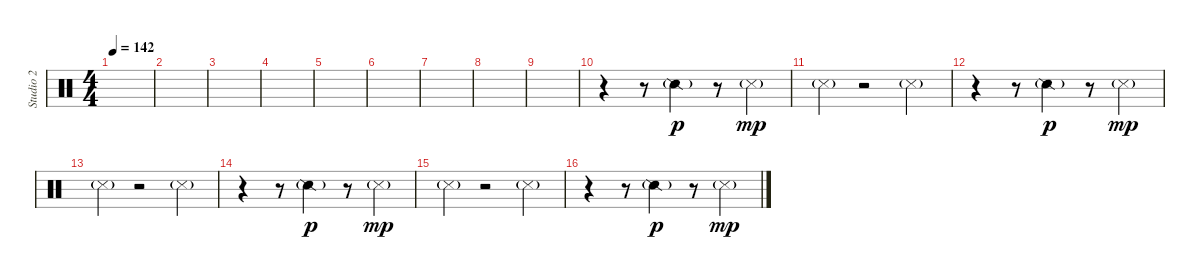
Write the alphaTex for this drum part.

\track ("Studio 2" "Studio 2") {instrument percussion}
\staff {score}
\articulation defaults
\ts (4 4)
\tempo 142
\clef neutral
\ks c
|
|
|
|
|
|
|
|
|
r.4 r.8 "Snare (side stick) 2"{g}.4{dy p} r.8 "Snare (side stick) 3"{g}.4{dy mp} |
"Metronome (hit)"{g}.4 r.2 "Snare (side stick) 3"{g}.4 |
r.4 r.8 "Snare (side stick) 2"{g}.4{dy p} r.8 "Snare (side stick) 3"{g}.4{dy mp} |
"Metronome (hit)"{g}.4 r.2 "Snare (side stick) 3"{g}.4 |
r.4 r.8 "Snare (side stick) 2"{g}.4{dy p} r.8 "Snare (side stick) 3"{g}.4{dy mp} |
"Metronome (hit)"{g}.4 r.2 "Snare (side stick) 3"{g}.4 |
r.4 r.8 "Snare (side stick) 2"{g}.4{dy p} r.8 "Snare (side stick) 3"{g}.4{dy mp}
